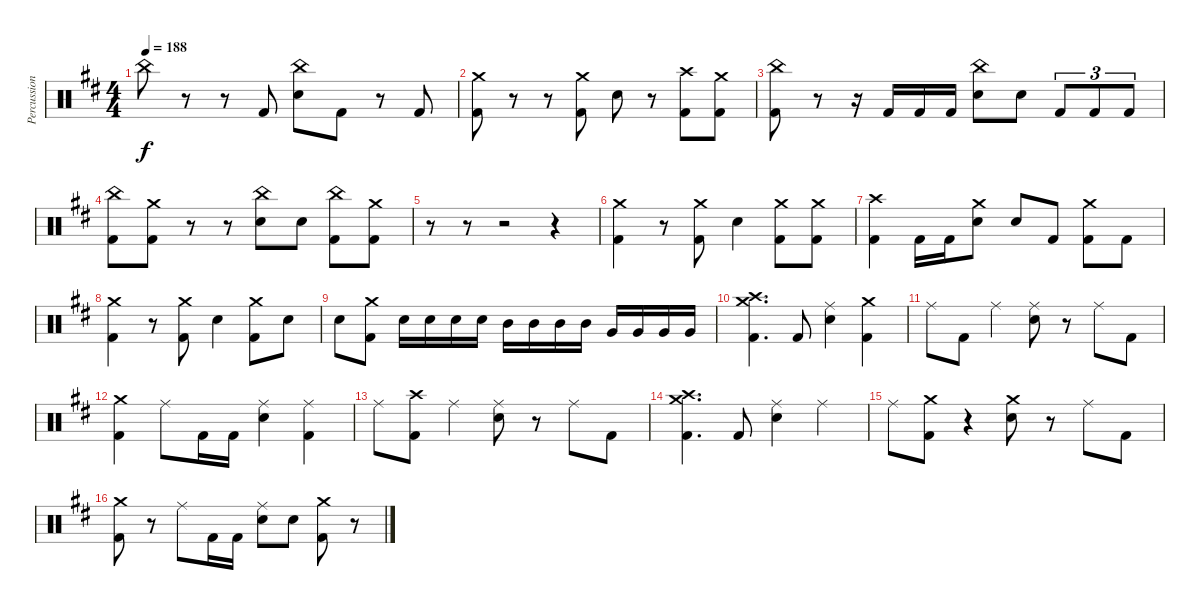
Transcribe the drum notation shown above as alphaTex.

\track ("Percussion" "Percussion") {instrument percussion}
\staff {score}
\articulation defaults
\ts (4 4)
\tempo 188
\clef neutral
\ks bminor "China (hit)".8{dy f}
r.8 r.8 "Kick (hit) 2".8 ("Electric Snare (hit)" "China (hit)").8 "Kick (hit) 2".8 r.8 "Kick (hit) 2".8 |
("Crash medium (hit)" "Kick (hit) 2").8 r.8 r.8 ("Kick (hit) 2" "Crash medium (hit)").8 "Electric Snare (hit)".8 r.8 ("Kick (hit) 2" "Crash high (hit)").8 ("Kick (hit) 2" "Crash medium (hit)").8 |
("China (hit)" "Kick (hit) 2").8 r.8 r.16 "Kick (hit) 2".16 "Kick (hit) 2".16 "Kick (hit) 2".16 ("China (hit)" "Electric Snare (hit)").8 "Electric Snare (hit)".8 "Kick (hit) 2".8{tu (3 2)} "Kick (hit) 2".8{tu (3 2)} "Kick (hit) 2".8{tu (3 2)} |
("China (hit)" "Kick (hit) 2").8 ("Kick (hit) 2" "Crash medium (hit)").8 r.8 r.8 ("Electric Snare (hit)" "China (hit)").8 "Electric Snare (hit)".8 ("Kick (hit) 2" "China (hit)").8 ("Kick (hit) 2" "Crash medium (hit)").8 |
r.8{volume 0} r.8 r.2 r.4 |
("Crash medium (hit)" "Kick (hit) 2").4{volume 16} r.8 ("Crash medium (hit)" "Kick (hit) 2").8 "Electric Snare (hit)".4 ("Kick (hit) 2" "Crash medium (hit)").8 ("Kick (hit) 2" "Crash medium (hit)").8 |
("Kick (hit) 2" "Crash high (hit)").4 "Kick (hit) 2".16 "Kick (hit) 2".16 ("Electric Snare (hit)" "Crash medium (hit)").8 "Electric Snare (hit)".8 "Kick (hit) 2".8 ("Kick (hit) 2" "Crash medium (hit)").8 "Kick (hit) 2".8 |
("Kick (hit) 2" "Crash medium (hit)").4 r.8 ("Crash medium (hit)" "Kick (hit) 2").8 "Electric Snare (hit)".4 ("Kick (hit) 2" "Crash medium (hit)").8 "Electric Snare (hit)".8 |
"Electric Snare (hit)".8 ("Crash medium (hit)" "Kick (hit) 2").8 "Electric Snare (hit)".16 "Electric Snare (hit)".16 "Electric Snare (hit)".16 "Electric Snare (hit)".16 "Mid Tom (hit)".16 "Mid Tom (hit)".16 "Mid Tom (hit)".16 "Mid Tom (hit)".16 "Very Low Tom (hit)".16 "Very Low Tom (hit)".16 "Very Low Tom (hit)".16 "Very Low Tom (hit)".16 |
("Crash medium (hit)" "Kick (hit) 2" "Crash high (hit)").4{d} "Kick (hit) 2".8 ("Ride (middle)" "Electric Snare (hit)").4 ("Crash medium (hit)" "Kick (hit) 2").4 |
"Ride (middle)".8 "Kick (hit) 2".8 "Ride (middle)".4 ("Ride (middle)" "Electric Snare (hit)").8 r.8 "Ride (middle)".8 "Kick (hit) 2".8 |
("Crash medium (hit)" "Kick (hit) 2").4 "Ride (middle)".8 "Kick (hit) 2".16 "Kick (hit) 2".16 ("Ride (middle)" "Electric Snare (hit)").4 ("Ride (middle)" "Kick (hit) 2").4 |
"Ride (middle)".8 ("Kick (hit) 2" "Crash high (hit)").8 "Ride (middle)".4 ("Ride (middle)" "Electric Snare (hit)").8 r.8 "Ride (middle)".8 "Kick (hit) 2".8 |
("Crash medium (hit)" "Kick (hit) 2" "Crash high (hit)").4{d} "Kick (hit) 2".8 ("Ride (middle)" "Electric Snare (hit)").4 "Ride (middle)".4 |
"Ride (middle)".8 ("Kick (hit) 2" "Crash medium (hit)").8 r.4 ("Crash medium (hit)" "Electric Snare (hit)").8 r.8 "Ride (middle)".8 "Kick (hit) 2".8 |
("Crash medium (hit)" "Kick (hit) 2").8 r.8 "Ride (middle)".8 "Kick (hit) 2".16 "Kick (hit) 2".16 ("Ride (middle)" "Electric Snare (hit)").8 "Electric Snare (hit)".8 ("Crash medium (hit)" "Kick (hit) 2").8 r.8
